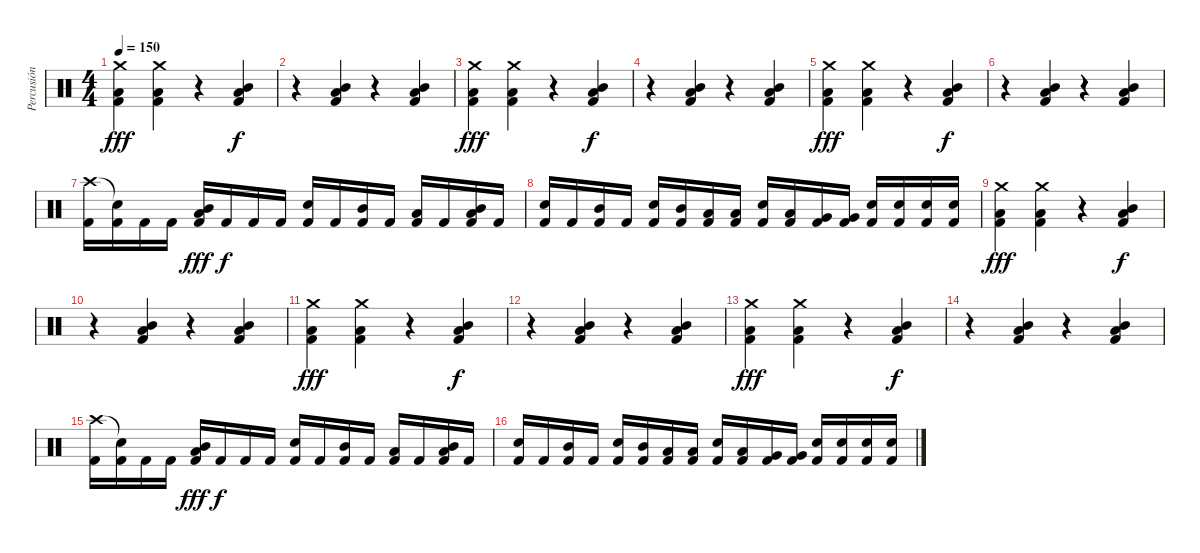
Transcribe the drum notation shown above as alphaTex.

\track ("Percusión" "Percusión") {instrument percussion}
\staff {score}
\articulation defaults
\ts (4 4)
\tempo 150
\clef neutral
\ks c
("Crash medium (hit)" "Low Tom (hit)" "Kick (hit) 2").4{dy fff} ("Crash medium (hit)" "Low Tom (hit)" "Kick (hit) 2").4 r.4 ("Mid Tom (hit)" "Low Tom (hit)" "Kick (hit) 2").4{dy f} |
r.4 ("Mid Tom (hit)" "Low Tom (hit)" "Kick (hit) 2").4 r.4 ("Mid Tom (hit)" "Low Tom (hit)" "Kick (hit) 2").4 |
("Crash medium (hit)" "Low Tom (hit)" "Kick (hit) 2").4{dy fff} ("Crash medium (hit)" "Low Tom (hit)" "Kick (hit) 2").4 r.4 ("Mid Tom (hit)" "Low Tom (hit)" "Kick (hit) 2").4{dy f} |
r.4 ("Mid Tom (hit)" "Low Tom (hit)" "Kick (hit) 2").4 r.4 ("Mid Tom (hit)" "Low Tom (hit)" "Kick (hit) 2").4 |
("Crash medium (hit)" "Low Tom (hit)" "Kick (hit) 2").4{dy fff} ("Crash medium (hit)" "Low Tom (hit)" "Kick (hit) 2").4 r.4 ("Mid Tom (hit)" "Low Tom (hit)" "Kick (hit) 2").4{dy f} |
r.4 ("Mid Tom (hit)" "Low Tom (hit)" "Kick (hit) 2").4 r.4 ("Mid Tom (hit)" "Low Tom (hit)" "Kick (hit) 2").4 |
("Crash high (hit)" "Kick (hit) 2").16 ("Snare (hit)"{t} "Kick (hit) 2").16 "Kick (hit) 2".16 "Kick (hit) 2".16 ("Low Tom (hit)" "Mid Tom (hit)" "Kick (hit) 2").16{dy fff} "Kick (hit) 2".16{dy f} "Kick (hit) 2".16 "Kick (hit) 2".16 ("Electric Snare (hit)" "Kick (hit) 2").16 "Kick (hit) 2".16 ("Mid Tom (hit)" "Kick (hit) 2").16 "Kick (hit) 2".16 ("Low Tom (hit)" "Kick (hit) 2").16 "Kick (hit) 2".16 ("Low Tom (hit)" "Mid Tom (hit)" "Kick (hit) 2").16 "Kick (hit) 2".16 |
("Electric Snare (hit)" "Kick (hit) 2").16 "Kick (hit) 2".16 ("Mid Tom (hit)" "Kick (hit) 2").16 "Kick (hit) 2".16 ("Electric Snare (hit)" "Kick (hit) 2").16 ("Mid Tom (hit)" "Kick (hit) 2").16 ("Low Tom (hit)" "Kick (hit) 2").16 ("Low Tom (hit)" "Kick (hit) 2").16 ("Electric Snare (hit)" "Kick (hit) 2").16 ("Low Tom (hit)" "Kick (hit) 2").16 ("Very Low Tom (hit)" "Kick (hit) 2").16 ("Very Low Tom (hit)" "Kick (hit) 2").16 ("Electric Snare (hit)" "Kick (hit) 2").16 ("Electric Snare (hit)" "Kick (hit) 2").16 ("Electric Snare (hit)" "Kick (hit) 2").16 ("Electric Snare (hit)" "Kick (hit) 2").16 |
("Crash medium (hit)" "Low Tom (hit)" "Kick (hit) 2").4{dy fff} ("Crash medium (hit)" "Low Tom (hit)" "Kick (hit) 2").4 r.4 ("Mid Tom (hit)" "Low Tom (hit)" "Kick (hit) 2").4{dy f} |
r.4 ("Mid Tom (hit)" "Low Tom (hit)" "Kick (hit) 2").4 r.4 ("Mid Tom (hit)" "Low Tom (hit)" "Kick (hit) 2").4 |
("Crash medium (hit)" "Low Tom (hit)" "Kick (hit) 2").4{dy fff} ("Crash medium (hit)" "Low Tom (hit)" "Kick (hit) 2").4 r.4 ("Mid Tom (hit)" "Low Tom (hit)" "Kick (hit) 2").4{dy f} |
r.4 ("Mid Tom (hit)" "Low Tom (hit)" "Kick (hit) 2").4 r.4 ("Mid Tom (hit)" "Low Tom (hit)" "Kick (hit) 2").4 |
("Crash medium (hit)" "Low Tom (hit)" "Kick (hit) 2").4{dy fff} ("Crash medium (hit)" "Low Tom (hit)" "Kick (hit) 2").4 r.4 ("Mid Tom (hit)" "Low Tom (hit)" "Kick (hit) 2").4{dy f} |
r.4 ("Mid Tom (hit)" "Low Tom (hit)" "Kick (hit) 2").4 r.4 ("Mid Tom (hit)" "Low Tom (hit)" "Kick (hit) 2").4 |
("Crash high (hit)" "Kick (hit) 2").16 ("Snare (hit)"{t} "Kick (hit) 2").16 "Kick (hit) 2".16 "Kick (hit) 2".16 ("Low Tom (hit)" "Mid Tom (hit)" "Kick (hit) 2").16{dy fff} "Kick (hit) 2".16{dy f} "Kick (hit) 2".16 "Kick (hit) 2".16 ("Electric Snare (hit)" "Kick (hit) 2").16 "Kick (hit) 2".16 ("Mid Tom (hit)" "Kick (hit) 2").16 "Kick (hit) 2".16 ("Low Tom (hit)" "Kick (hit) 2").16 "Kick (hit) 2".16 ("Low Tom (hit)" "Mid Tom (hit)" "Kick (hit) 2").16 "Kick (hit) 2".16 |
("Electric Snare (hit)" "Kick (hit) 2").16 "Kick (hit) 2".16 ("Mid Tom (hit)" "Kick (hit) 2").16 "Kick (hit) 2".16 ("Electric Snare (hit)" "Kick (hit) 2").16 ("Mid Tom (hit)" "Kick (hit) 2").16 ("Low Tom (hit)" "Kick (hit) 2").16 ("Low Tom (hit)" "Kick (hit) 2").16 ("Electric Snare (hit)" "Kick (hit) 2").16 ("Low Tom (hit)" "Kick (hit) 2").16 ("Very Low Tom (hit)" "Kick (hit) 2").16 ("Very Low Tom (hit)" "Kick (hit) 2").16 ("Electric Snare (hit)" "Kick (hit) 2").16 ("Electric Snare (hit)" "Kick (hit) 2").16 ("Electric Snare (hit)" "Kick (hit) 2").16 ("Electric Snare (hit)" "Kick (hit) 2").16
